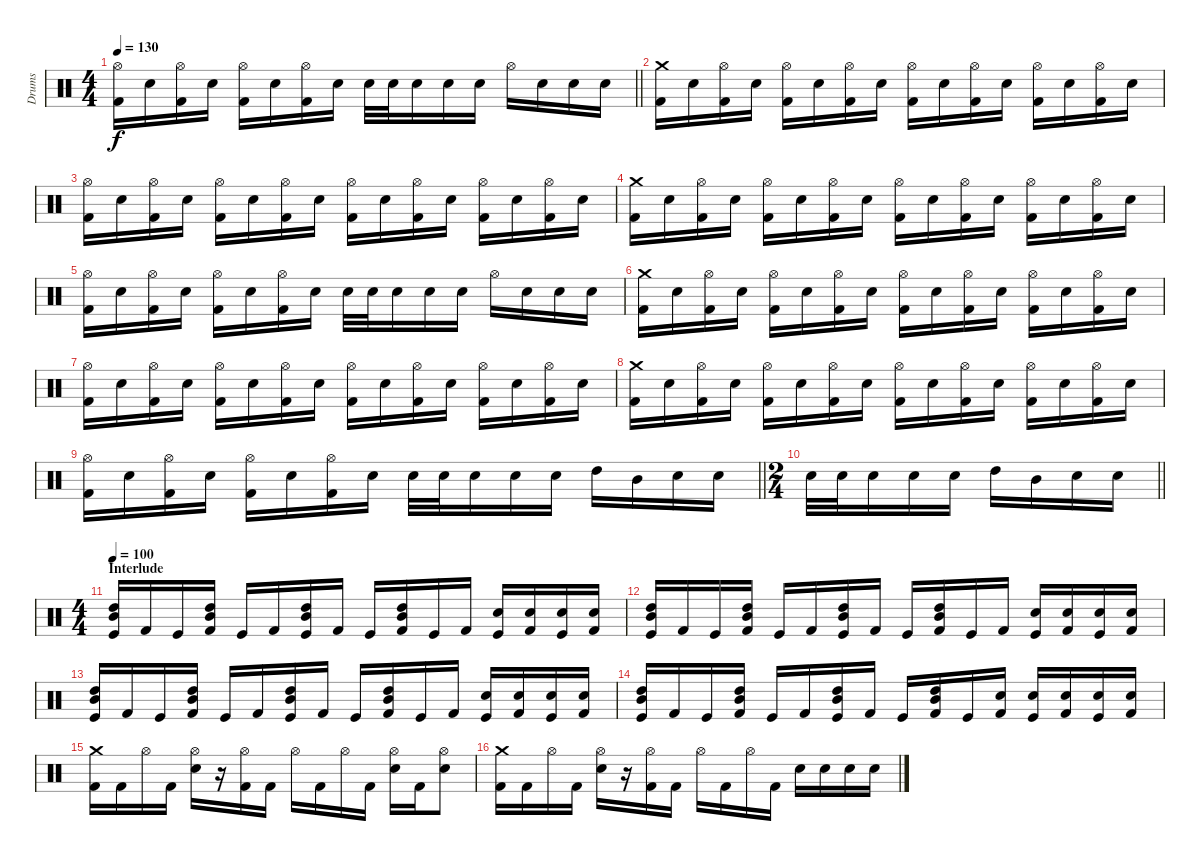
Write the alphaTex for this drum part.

\track ("Drums" "Drums") {instrument percussion}
\staff {score}
\articulation defaults
\ts (4 4)
\tempo 130
\clef neutral
\barLineRight lightlight
\ks c
("Hi-Hat (open)" "Kick (hit) 2").16{dy f} "Electric Snare (hit)".16 ("Hi-Hat (open)" "Kick (hit) 2").16 "Electric Snare (hit)".16 ("Hi-Hat (open)" "Kick (hit) 2").16 "Electric Snare (hit)".16 ("Hi-Hat (open)" "Kick (hit) 2").16 "Electric Snare (hit)".16 "Electric Snare (hit)".32 "Electric Snare (hit)".32 "Electric Snare (hit)".16 "Electric Snare (hit)".16 "Electric Snare (hit)".16 "Hi-Hat (open)".16 "Electric Snare (hit)".16 "Electric Snare (hit)".16 "Electric Snare (hit)".16 |
("Crash medium (hit)" "Kick (hit) 2").16 "Electric Snare (hit)".16 ("Hi-Hat (open)" "Kick (hit) 2").16 "Electric Snare (hit)".16 ("Hi-Hat (open)" "Kick (hit) 2").16 "Electric Snare (hit)".16 ("Hi-Hat (open)" "Kick (hit) 2").16 "Electric Snare (hit)".16 ("Hi-Hat (open)" "Kick (hit) 2").16 "Electric Snare (hit)".16 ("Hi-Hat (open)" "Kick (hit) 2").16 "Electric Snare (hit)".16 ("Hi-Hat (open)" "Kick (hit) 2").16 "Electric Snare (hit)".16 ("Hi-Hat (open)" "Kick (hit) 2").16 "Electric Snare (hit)".16 |
("Hi-Hat (open)" "Kick (hit) 2").16 "Electric Snare (hit)".16 ("Hi-Hat (open)" "Kick (hit) 2").16 "Electric Snare (hit)".16 ("Hi-Hat (open)" "Kick (hit) 2").16 "Electric Snare (hit)".16 ("Hi-Hat (open)" "Kick (hit) 2").16 "Electric Snare (hit)".16 ("Hi-Hat (open)" "Kick (hit) 2").16 "Electric Snare (hit)".16 ("Hi-Hat (open)" "Kick (hit) 2").16 "Electric Snare (hit)".16 ("Hi-Hat (open)" "Kick (hit) 2").16 "Electric Snare (hit)".16 ("Hi-Hat (open)" "Kick (hit) 2").16 "Electric Snare (hit)".16 |
("Crash medium (hit)" "Kick (hit) 2").16 "Electric Snare (hit)".16 ("Hi-Hat (open)" "Kick (hit) 2").16 "Electric Snare (hit)".16 ("Hi-Hat (open)" "Kick (hit) 2").16 "Electric Snare (hit)".16 ("Hi-Hat (open)" "Kick (hit) 2").16 "Electric Snare (hit)".16 ("Hi-Hat (open)" "Kick (hit) 2").16 "Electric Snare (hit)".16 ("Hi-Hat (open)" "Kick (hit) 2").16 "Electric Snare (hit)".16 ("Hi-Hat (open)" "Kick (hit) 2").16 "Electric Snare (hit)".16 ("Hi-Hat (open)" "Kick (hit) 2").16 "Electric Snare (hit)".16 |
("Hi-Hat (open)" "Kick (hit) 2").16 "Electric Snare (hit)".16 ("Hi-Hat (open)" "Kick (hit) 2").16 "Electric Snare (hit)".16 ("Hi-Hat (open)" "Kick (hit) 2").16 "Electric Snare (hit)".16 ("Hi-Hat (open)" "Kick (hit) 2").16 "Electric Snare (hit)".16 "Electric Snare (hit)".32 "Electric Snare (hit)".32 "Electric Snare (hit)".16 "Electric Snare (hit)".16 "Electric Snare (hit)".16 "Hi-Hat (open)".16 "Electric Snare (hit)".16 "Electric Snare (hit)".16 "Electric Snare (hit)".16 |
("Crash medium (hit)" "Kick (hit) 2").16 "Electric Snare (hit)".16 ("Hi-Hat (open)" "Kick (hit) 2").16 "Electric Snare (hit)".16 ("Hi-Hat (open)" "Kick (hit) 2").16 "Electric Snare (hit)".16 ("Hi-Hat (open)" "Kick (hit) 2").16 "Electric Snare (hit)".16 ("Hi-Hat (open)" "Kick (hit) 2").16 "Electric Snare (hit)".16 ("Hi-Hat (open)" "Kick (hit) 2").16 "Electric Snare (hit)".16 ("Hi-Hat (open)" "Kick (hit) 2").16 "Electric Snare (hit)".16 ("Hi-Hat (open)" "Kick (hit) 2").16 "Electric Snare (hit)".16 |
("Hi-Hat (open)" "Kick (hit) 2").16 "Electric Snare (hit)".16 ("Hi-Hat (open)" "Kick (hit) 2").16 "Electric Snare (hit)".16 ("Hi-Hat (open)" "Kick (hit) 2").16 "Electric Snare (hit)".16 ("Hi-Hat (open)" "Kick (hit) 2").16 "Electric Snare (hit)".16 ("Hi-Hat (open)" "Kick (hit) 2").16 "Electric Snare (hit)".16 ("Hi-Hat (open)" "Kick (hit) 2").16 "Electric Snare (hit)".16 ("Hi-Hat (open)" "Kick (hit) 2").16 "Electric Snare (hit)".16 ("Hi-Hat (open)" "Kick (hit) 2").16 "Electric Snare (hit)".16 |
("Crash medium (hit)" "Kick (hit) 2").16 "Electric Snare (hit)".16 ("Hi-Hat (open)" "Kick (hit) 2").16 "Electric Snare (hit)".16 ("Hi-Hat (open)" "Kick (hit) 2").16 "Electric Snare (hit)".16 ("Hi-Hat (open)" "Kick (hit) 2").16 "Electric Snare (hit)".16 ("Hi-Hat (open)" "Kick (hit) 2").16 "Electric Snare (hit)".16 ("Hi-Hat (open)" "Kick (hit) 2").16 "Electric Snare (hit)".16 ("Hi-Hat (open)" "Kick (hit) 2").16 "Electric Snare (hit)".16 ("Hi-Hat (open)" "Kick (hit) 2").16 "Electric Snare (hit)".16 |
\barLineRight lightlight
("Hi-Hat (open)" "Kick (hit) 2").16 "Electric Snare (hit)".16 ("Hi-Hat (open)" "Kick (hit) 2").16 "Electric Snare (hit)".16 ("Hi-Hat (open)" "Kick (hit) 2").16 "Electric Snare (hit)".16 ("Hi-Hat (open)" "Kick (hit) 2").16 "Electric Snare (hit)".16 "Electric Snare (hit)".32 "Electric Snare (hit)".32 "Electric Snare (hit)".16 "Electric Snare (hit)".16 "Electric Snare (hit)".16 "High Tom (hit)".16 "Mid Tom (hit)".16 "Electric Snare (hit)".16 "Electric Snare (hit)".16 |
\ts (2 4)
\barLineRight lightlight "Electric Snare (hit)".32 "Electric Snare (hit)".32 "Electric Snare (hit)".16 "Electric Snare (hit)".16 "Electric Snare (hit)".16 "High Tom (hit)".16 "Mid Tom (hit)".16 "Electric Snare (hit)".16 "Electric Snare (hit)".16
|
\ts (4 4)
\section ("" "Interlude")
\tempo 100
("Mid Tom (hit)" "High Tom (hit)" "Kick (hit)").16 "Kick (hit) 2".16 "Kick (hit)".16 ("Mid Tom (hit)" "High Tom (hit)" "Kick (hit) 2").16 "Kick (hit)".16 "Kick (hit) 2".16 ("Mid Tom (hit)" "High Tom (hit)" "Kick (hit)").16 "Kick (hit) 2".16 "Kick (hit)".16 ("Mid Tom (hit)" "High Tom (hit)" "Kick (hit) 2").16 "Kick (hit)".16 "Kick (hit) 2".16 ("Electric Snare (hit)" "Kick (hit)").16 ("Electric Snare (hit)" "Kick (hit) 2").16 ("Electric Snare (hit)" "Kick (hit)").16 ("Electric Snare (hit)" "Kick (hit) 2").16 |
("Mid Tom (hit)" "High Tom (hit)" "Kick (hit)").16 "Kick (hit) 2".16 "Kick (hit)".16 ("Mid Tom (hit)" "High Tom (hit)" "Kick (hit) 2").16 "Kick (hit)".16 "Kick (hit) 2".16 ("Mid Tom (hit)" "High Tom (hit)" "Kick (hit)").16 "Kick (hit) 2".16 "Kick (hit)".16 ("Mid Tom (hit)" "High Tom (hit)" "Kick (hit) 2").16 "Kick (hit)".16 "Kick (hit) 2".16 ("Electric Snare (hit)" "Kick (hit)").16 ("Electric Snare (hit)" "Kick (hit) 2").16 ("Electric Snare (hit)" "Kick (hit)").16 ("Electric Snare (hit)" "Kick (hit) 2").16 |
("Mid Tom (hit)" "High Tom (hit)" "Kick (hit)").16 "Kick (hit) 2".16 "Kick (hit)".16 ("Mid Tom (hit)" "High Tom (hit)" "Kick (hit) 2").16 "Kick (hit)".16 "Kick (hit) 2".16 ("Mid Tom (hit)" "High Tom (hit)" "Kick (hit)").16 "Kick (hit) 2".16 "Kick (hit)".16 ("Mid Tom (hit)" "High Tom (hit)" "Kick (hit) 2").16 "Kick (hit)".16 "Kick (hit) 2".16 ("Electric Snare (hit)" "Kick (hit)").16 ("Electric Snare (hit)" "Kick (hit) 2").16 ("Electric Snare (hit)" "Kick (hit)").16 ("Electric Snare (hit)" "Kick (hit) 2").16 |
("Mid Tom (hit)" "High Tom (hit)" "Kick (hit)").16 "Kick (hit) 2".16 "Kick (hit)".16 ("Mid Tom (hit)" "High Tom (hit)" "Kick (hit) 2").16 "Kick (hit)".16 "Kick (hit) 2".16 ("Mid Tom (hit)" "High Tom (hit)" "Kick (hit)").16 "Kick (hit) 2".16 "Kick (hit)".16 ("Mid Tom (hit)" "High Tom (hit)" "Kick (hit) 2").16 "Kick (hit)".16 ("Electric Snare (hit)" "Kick (hit) 2").16 ("Electric Snare (hit)" "Kick (hit)").16 ("Electric Snare (hit)" "Kick (hit) 2").16 ("Electric Snare (hit)" "Kick (hit)").16 ("Electric Snare (hit)" "Kick (hit) 2").16 |
("Crash medium (hit)" "Kick (hit) 2").16 "Kick (hit) 2".16 "Hi-Hat (open)".16 "Kick (hit) 2".16 ("Hi-Hat (open)" "Electric Snare (hit)").16 r.16 ("Hi-Hat (open)" "Kick (hit) 2").16 "Kick (hit) 2".16 "Hi-Hat (open)".16 "Kick (hit) 2".16 "Hi-Hat (open)".16 "Kick (hit) 2".16 ("Hi-Hat (open)" "Electric Snare (hit)").16 "Kick (hit) 2".16 ("Hi-Hat (open)" "Electric Snare (hit)").8 |
("Crash medium (hit)" "Kick (hit) 2").16 "Kick (hit) 2".16 "Hi-Hat (open)".16 "Kick (hit) 2".16 ("Hi-Hat (open)" "Electric Snare (hit)").16 r.16 ("Hi-Hat (open)" "Kick (hit) 2").16 "Kick (hit) 2".16 "Hi-Hat (open)".16 "Kick (hit) 2".16 "Hi-Hat (open)".16 "Kick (hit) 2".16 "Electric Snare (hit)".16 "Electric Snare (hit)".16 "Electric Snare (hit)".16 "Electric Snare (hit)".16
